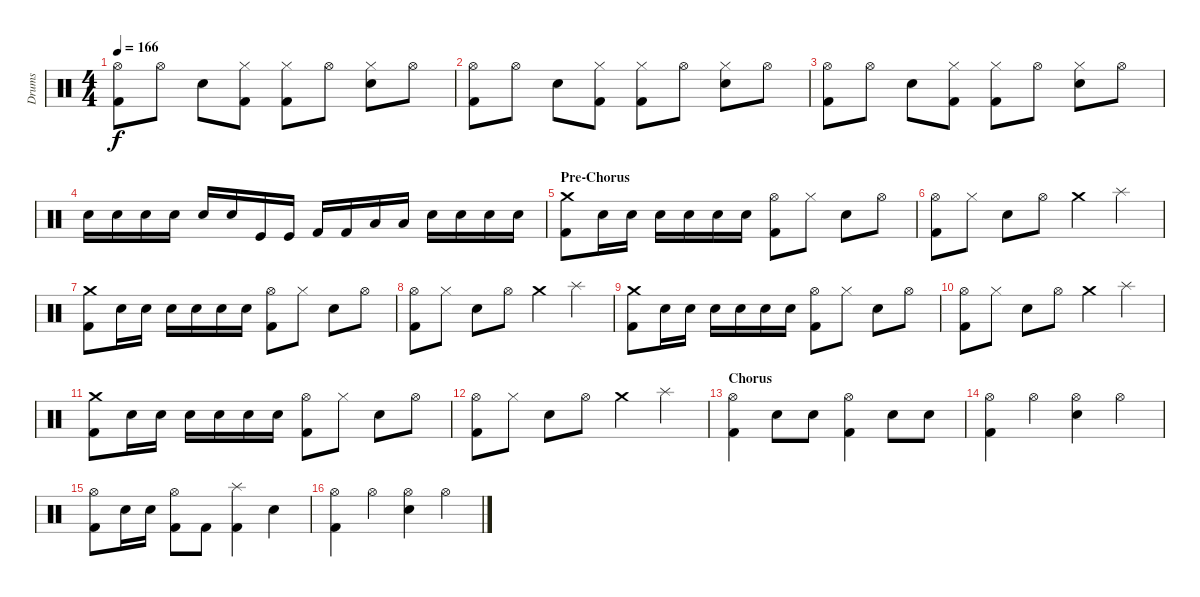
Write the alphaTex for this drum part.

\track ("Drums" "Drums") {instrument percussion}
\staff {score}
\articulation defaults
\ts (4 4)
\tempo 166
\clef neutral
\ks c
("Hi-Hat (open)" "Kick (hit) 2").8{dy f} "Hi-Hat (open)".8 "Electric Snare (hit)".8 ("Hi-Hat (closed)" "Kick (hit) 2").8 ("Hi-Hat (closed)" "Kick (hit) 2").8 "Hi-Hat (open)".8 ("Hi-Hat (closed)" "Electric Snare (hit)").8 "Hi-Hat (open)".8 |
("Hi-Hat (open)" "Kick (hit) 2").8 "Hi-Hat (open)".8 "Electric Snare (hit)".8 ("Hi-Hat (closed)" "Kick (hit) 2").8 ("Hi-Hat (closed)" "Kick (hit) 2").8 "Hi-Hat (open)".8 ("Hi-Hat (closed)" "Electric Snare (hit)").8 "Hi-Hat (open)".8 |
("Hi-Hat (open)" "Kick (hit) 2").8 "Hi-Hat (open)".8 "Electric Snare (hit)".8 ("Hi-Hat (closed)" "Kick (hit) 2").8 ("Hi-Hat (closed)" "Kick (hit) 2").8 "Hi-Hat (open)".8 ("Hi-Hat (closed)" "Electric Snare (hit)").8 "Hi-Hat (open)".8 |
"Electric Snare (hit)".16 "Electric Snare (hit)".16 "Electric Snare (hit)".16 "Electric Snare (hit)".16 "Snare (hit) 2".16 "Snare (hit) 2".16 "Kick (hit)".16 "Kick (hit)".16 "Kick (hit) 2".16 "Kick (hit) 2".16 "Low Tom (hit)".16 "Low Tom (hit)".16 "Electric Snare (hit)".16 "Electric Snare (hit)".16 "Electric Snare (hit)".16 "Electric Snare (hit)".16 |
\section ("" "Pre-Chorus")
("Crash medium (hit)" "Kick (hit) 2").8 "Snare (hit) 2".16 "Snare (hit) 2".16 "Electric Snare (hit)".16 "Electric Snare (hit)".16 "Snare (hit) 2".16 "Snare (hit) 2".16 ("Hi-Hat (open)" "Kick (hit) 2").8 "Hi-Hat (closed)".8 "Electric Snare (hit)".8 "Hi-Hat (open)".8 |
("Hi-Hat (open)" "Kick (hit) 2").8 "Hi-Hat (closed)".8 "Electric Snare (hit)".8 "Hi-Hat (open)".8 "Crash medium (hit)".4 "Splash (hit)".4 |
("Crash medium (hit)" "Kick (hit) 2").8 "Snare (hit) 2".16 "Snare (hit) 2".16 "Electric Snare (hit)".16 "Electric Snare (hit)".16 "Snare (hit) 2".16 "Snare (hit) 2".16 ("Hi-Hat (open)" "Kick (hit) 2").8 "Hi-Hat (closed)".8 "Electric Snare (hit)".8 "Hi-Hat (open)".8 |
("Hi-Hat (open)" "Kick (hit) 2").8 "Hi-Hat (closed)".8 "Electric Snare (hit)".8 "Hi-Hat (open)".8 "Crash medium (hit)".4 "Splash (hit)".4 |
("Crash medium (hit)" "Kick (hit) 2").8 "Snare (hit) 2".16 "Snare (hit) 2".16 "Electric Snare (hit)".16 "Electric Snare (hit)".16 "Snare (hit) 2".16 "Snare (hit) 2".16 ("Hi-Hat (open)" "Kick (hit) 2").8 "Hi-Hat (closed)".8 "Electric Snare (hit)".8 "Hi-Hat (open)".8 |
("Hi-Hat (open)" "Kick (hit) 2").8 "Hi-Hat (closed)".8 "Electric Snare (hit)".8 "Hi-Hat (open)".8 "Crash medium (hit)".4 "Splash (hit)".4 |
("Crash medium (hit)" "Kick (hit) 2").8 "Snare (hit) 2".16 "Snare (hit) 2".16 "Electric Snare (hit)".16 "Electric Snare (hit)".16 "Snare (hit) 2".16 "Snare (hit) 2".16 ("Hi-Hat (open)" "Kick (hit) 2").8 "Hi-Hat (closed)".8 "Electric Snare (hit)".8 "Hi-Hat (open)".8 |
("Hi-Hat (open)" "Kick (hit) 2").8 "Hi-Hat (closed)".8 "Electric Snare (hit)".8 "Hi-Hat (open)".8 "Crash medium (hit)".4 "Splash (hit)".4 |
\section ("" "Chorus")
("Hi-Hat (open)" "Kick (hit) 2").4 "Snare (hit) 2".8 "Electric Snare (hit)".8 ("Hi-Hat (open)" "Kick (hit) 2").4 "Electric Snare (hit)".8 "Snare (hit) 2".8 |
("Hi-Hat (open)" "Kick (hit) 2").4 "Hi-Hat (open)".4 ("Hi-Hat (open)" "Electric Snare (hit)").4 "Hi-Hat (open)".4 |
("Hi-Hat (open)" "Kick (hit) 2").8 "Snare (hit) 2".16 "Electric Snare (hit)".16 ("Hi-Hat (open)" "Kick (hit) 2").8 "Kick (hit) 2".8 ("Splash (hit)" "Kick (hit) 2").4 "Electric Snare (hit)".4 |
("Hi-Hat (open)" "Kick (hit) 2").4 "Hi-Hat (open)".4 ("Electric Snare (hit)" "Hi-Hat (open)").4 "Hi-Hat (open)".4
